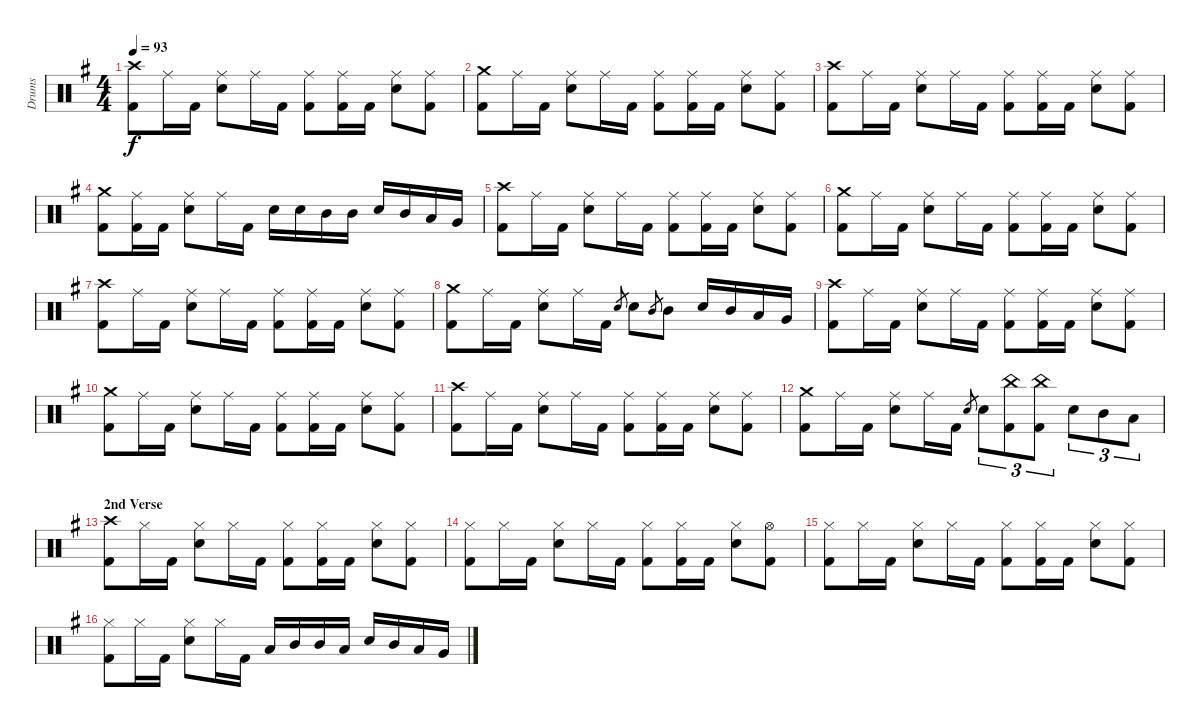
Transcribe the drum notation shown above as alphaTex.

\track ("Drums" "Drums") {instrument percussion}
\staff {score}
\articulation defaults
\ts (4 4)
\tempo 93
\clef neutral
\ks eminor
("Crash high (hit)" "Kick (hit) 2").8{dy f} "Ride (middle)".16 "Kick (hit) 2".16 ("Ride (middle)" "Snare (hit) 2").8 "Ride (middle)".16 "Kick (hit) 2".16 ("Ride (middle)" "Kick (hit) 2").8 ("Ride (middle)" "Kick (hit) 2").16 "Kick (hit) 2".16 ("Ride (middle)" "Snare (hit) 2").8 ("Ride (middle)" "Kick (hit) 2").8 |
("Crash medium (hit)" "Kick (hit) 2").8 "Ride (middle)".16 "Kick (hit) 2".16 ("Ride (middle)" "Snare (hit) 2").8 "Ride (middle)".16 "Kick (hit) 2".16 ("Ride (middle)" "Kick (hit) 2").8 ("Ride (middle)" "Kick (hit) 2").16 "Kick (hit) 2".16 ("Ride (middle)" "Snare (hit) 2").8 ("Ride (middle)" "Kick (hit) 2").8 |
("Crash high (hit)" "Kick (hit) 2").8 "Ride (middle)".16 "Kick (hit) 2".16 ("Ride (middle)" "Snare (hit) 2").8 "Ride (middle)".16 "Kick (hit) 2".16 ("Ride (middle)" "Kick (hit) 2").8 ("Ride (middle)" "Kick (hit) 2").16 "Kick (hit) 2".16 ("Ride (middle)" "Snare (hit) 2").8 ("Ride (middle)" "Kick (hit) 2").8 |
("Crash medium (hit)" "Kick (hit) 2").8 ("Ride (middle)" "Kick (hit) 2").16 "Kick (hit) 2".16 ("Ride (middle)" "Snare (hit) 2").8 "Ride (middle)".16 "Kick (hit) 2".16 "Snare (hit) 2".16 "Snare (hit) 2".16 "Mid Tom (hit)".16 "Mid Tom (hit)".16 "Snare (hit) 2".16 "Mid Tom (hit)".16 "Low Tom (hit)".16 "Very Low Tom (hit)".16 |
("Crash high (hit)" "Kick (hit) 2").8 "Ride (middle)".16 "Kick (hit) 2".16 ("Ride (middle)" "Snare (hit) 2").8 "Ride (middle)".16 "Kick (hit) 2".16 ("Ride (middle)" "Kick (hit) 2").8 ("Ride (middle)" "Kick (hit) 2").16 "Kick (hit) 2".16 ("Ride (middle)" "Snare (hit) 2").8 ("Ride (middle)" "Kick (hit) 2").8 |
("Crash medium (hit)" "Kick (hit) 2").8 "Ride (middle)".16 "Kick (hit) 2".16 ("Ride (middle)" "Snare (hit) 2").8 "Ride (middle)".16 "Kick (hit) 2".16 ("Ride (middle)" "Kick (hit) 2").8 ("Ride (middle)" "Kick (hit) 2").16 "Kick (hit) 2".16 ("Ride (middle)" "Snare (hit) 2").8 ("Ride (middle)" "Kick (hit) 2").8 |
("Crash high (hit)" "Kick (hit) 2").8 "Ride (middle)".16 "Kick (hit) 2".16 ("Ride (middle)" "Snare (hit) 2").8 "Ride (middle)".16 "Kick (hit) 2".16 ("Ride (middle)" "Kick (hit) 2").8 ("Ride (middle)" "Kick (hit) 2").16 "Kick (hit) 2".16 ("Ride (middle)" "Snare (hit) 2").8 ("Ride (middle)" "Kick (hit) 2").8 |
("Crash medium (hit)" "Kick (hit) 2").8 "Ride (middle)".16 "Kick (hit) 2".16 ("Ride (middle)" "Snare (hit) 2").8 "Ride (middle)".16 "Kick (hit) 2".16 "Snare (hit) 2".8{gr} "Snare (hit) 2".8 "Mid Tom (hit)".8{gr} "Mid Tom (hit)".8 "Snare (hit) 2".16 "Mid Tom (hit)".16 "Low Tom (hit)".16 "Very Low Tom (hit)".16 |
("Crash high (hit)" "Kick (hit) 2").8 "Ride (middle)".16 "Kick (hit) 2".16 ("Ride (middle)" "Snare (hit) 2").8 "Ride (middle)".16 "Kick (hit) 2".16 ("Ride (middle)" "Kick (hit) 2").8 ("Ride (middle)" "Kick (hit) 2").16 "Kick (hit) 2".16 ("Ride (middle)" "Snare (hit) 2").8 ("Ride (middle)" "Kick (hit) 2").8 |
("Crash medium (hit)" "Kick (hit) 2").8 "Ride (middle)".16 "Kick (hit) 2".16 ("Ride (middle)" "Snare (hit) 2").8 "Ride (middle)".16 "Kick (hit) 2".16 ("Ride (middle)" "Kick (hit) 2").8 ("Ride (middle)" "Kick (hit) 2").16 "Kick (hit) 2".16 ("Ride (middle)" "Snare (hit) 2").8 ("Ride (middle)" "Kick (hit) 2").8 |
("Crash high (hit)" "Kick (hit) 2").8 "Ride (middle)".16 "Kick (hit) 2".16 ("Ride (middle)" "Snare (hit) 2").8 "Ride (middle)".16 "Kick (hit) 2".16 ("Ride (middle)" "Kick (hit) 2").8 ("Ride (middle)" "Kick (hit) 2").16 "Kick (hit) 2".16 ("Ride (middle)" "Snare (hit) 2").8 ("Ride (middle)" "Kick (hit) 2").8 |
("Crash medium (hit)" "Kick (hit) 2").8 "Ride (middle)".16 "Kick (hit) 2".16 ("Ride (middle)" "Snare (hit) 2").8 "Ride (middle)".16 "Kick (hit) 2".16 "Snare (hit) 2".8{gr} "Snare (hit) 2".8{tu (3 2)} ("China (hit)" "Kick (hit) 2").8{tu (3 2)} ("China (hit)" "Kick (hit) 2").8{tu (3 2)} "Snare (hit) 2".8{tu (3 2)} "Mid Tom (hit)".8{tu (3 2)} "Low Tom (hit)".8{tu (3 2)} |
\section ("" "2nd Verse")
("Crash high (hit)" "Kick (hit) 2").8 "Hi-Hat (closed)".16 "Kick (hit) 2".16 ("Hi-Hat (closed)" "Snare (hit) 2").8 "Hi-Hat (closed)".16 "Kick (hit) 2".16 ("Hi-Hat (closed)" "Kick (hit) 2").8 ("Hi-Hat (closed)" "Kick (hit) 2").16 "Kick (hit) 2".16 ("Hi-Hat (closed)" "Snare (hit) 2").8 ("Hi-Hat (closed)" "Kick (hit) 2").8 |
("Hi-Hat (closed)" "Kick (hit) 2").8 "Hi-Hat (closed)".16 "Kick (hit) 2".16 ("Hi-Hat (closed)" "Snare (hit) 2").8 "Hi-Hat (closed)".16 "Kick (hit) 2".16 ("Hi-Hat (closed)" "Kick (hit) 2").8 ("Hi-Hat (closed)" "Kick (hit) 2").16 "Kick (hit) 2".16 ("Hi-Hat (closed)" "Snare (hit) 2").8 ("Hi-Hat (open)" "Kick (hit) 2").8 |
("Hi-Hat (closed)" "Kick (hit) 2").8 "Hi-Hat (closed)".16 "Kick (hit) 2".16 ("Hi-Hat (closed)" "Snare (hit) 2").8 "Hi-Hat (closed)".16 "Kick (hit) 2".16 ("Hi-Hat (closed)" "Kick (hit) 2").8 ("Hi-Hat (closed)" "Kick (hit) 2").16 "Kick (hit) 2".16 ("Hi-Hat (closed)" "Snare (hit) 2").8 ("Hi-Hat (closed)" "Kick (hit) 2").8 |
("Hi-Hat (closed)" "Kick (hit) 2").8 "Hi-Hat (closed)".16 "Kick (hit) 2".16 ("Hi-Hat (closed)" "Snare (hit) 2").8 "Hi-Hat (closed)".16 "Kick (hit) 2".16 "Low Tom (hit)".16 "Mid Tom (hit)".16 "Mid Tom (hit)".16 "Low Tom (hit)".16 "Snare (hit) 2".16 "Mid Tom (hit)".16 "Low Tom (hit)".16 "Very Low Tom (hit)".16
